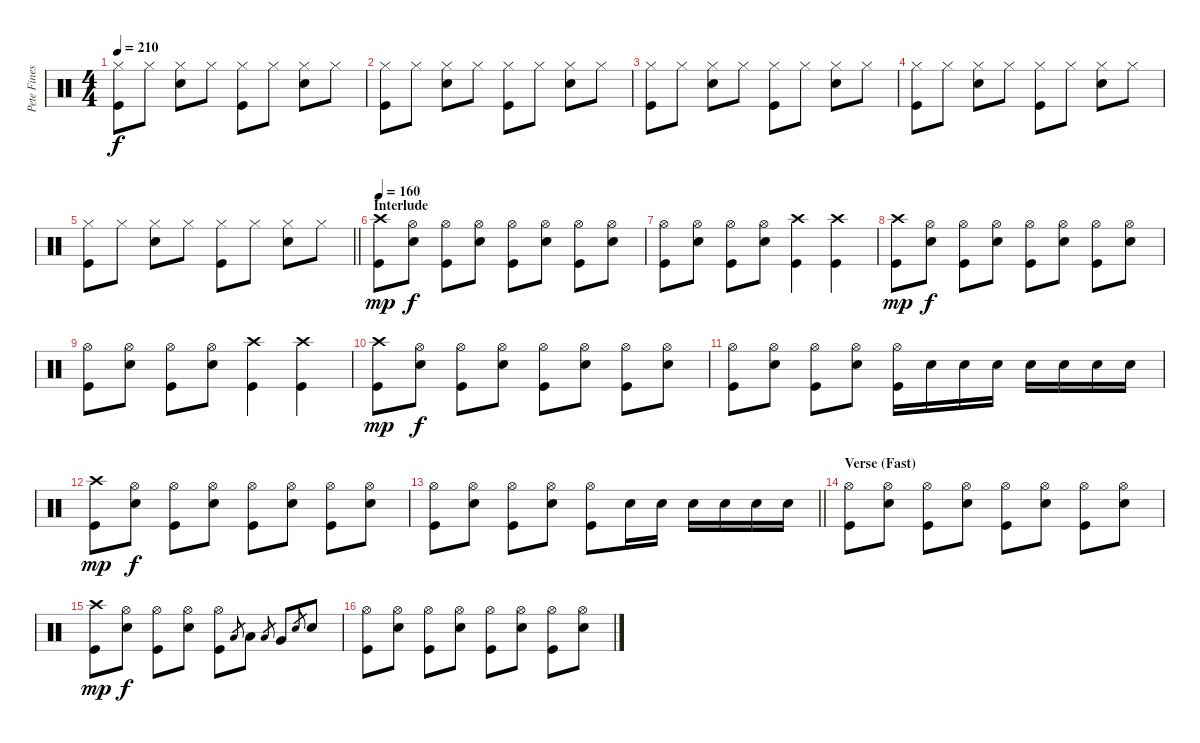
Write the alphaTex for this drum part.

\track ("Pete Finestone (Drums)" "Pete Fines") {instrument percussion}
\staff {score}
\articulation defaults
\ts (4 4)
\tempo 210
\clef neutral
\ks c
("Hi-Hat (closed)" "Kick (hit)").8{dy f} "Hi-Hat (closed)".8 ("Hi-Hat (closed)" "Snare (hit) 2").8 "Hi-Hat (closed)".8 ("Hi-Hat (closed)" "Kick (hit)").8 "Hi-Hat (closed)".8 ("Hi-Hat (closed)" "Snare (hit) 2").8 "Hi-Hat (closed)".8 |
("Hi-Hat (closed)" "Kick (hit)").8 "Hi-Hat (closed)".8 ("Hi-Hat (closed)" "Snare (hit) 2").8 "Hi-Hat (closed)".8 ("Hi-Hat (closed)" "Kick (hit)").8 "Hi-Hat (closed)".8 ("Hi-Hat (closed)" "Snare (hit) 2").8 "Hi-Hat (closed)".8 |
("Hi-Hat (closed)" "Kick (hit)").8 "Hi-Hat (closed)".8 ("Hi-Hat (closed)" "Snare (hit) 2").8 "Hi-Hat (closed)".8 ("Hi-Hat (closed)" "Kick (hit)").8 "Hi-Hat (closed)".8 ("Hi-Hat (closed)" "Snare (hit) 2").8 "Hi-Hat (closed)".8 |
("Hi-Hat (closed)" "Kick (hit)").8 "Hi-Hat (closed)".8 ("Hi-Hat (closed)" "Snare (hit) 2").8 "Hi-Hat (closed)".8 ("Hi-Hat (closed)" "Kick (hit)").8 "Hi-Hat (closed)".8 ("Hi-Hat (closed)" "Snare (hit) 2").8 "Hi-Hat (closed)".8 |
\barLineRight lightlight
("Hi-Hat (closed)" "Kick (hit)").8 "Hi-Hat (closed)".8 ("Hi-Hat (closed)" "Snare (hit) 2").8 "Hi-Hat (closed)".8 ("Hi-Hat (closed)" "Kick (hit)").8 "Hi-Hat (closed)".8 ("Hi-Hat (closed)" "Snare (hit) 2").8 "Hi-Hat (closed)".8 |
\section ("" "Interlude")
\tempo 160
("Crash high (hit)" "Kick (hit)").8{dy mp} ("Hi-Hat (open)" "Snare (hit) 2").8{dy f} ("Hi-Hat (open)" "Kick (hit)").8 ("Hi-Hat (open)" "Snare (hit) 2").8 ("Hi-Hat (open)" "Kick (hit)").8 ("Hi-Hat (open)" "Snare (hit) 2").8 ("Hi-Hat (open)" "Kick (hit)").8 ("Hi-Hat (open)" "Snare (hit) 2").8 |
("Hi-Hat (open)" "Kick (hit)").8 ("Hi-Hat (open)" "Snare (hit) 2").8 ("Hi-Hat (open)" "Kick (hit)").8 ("Hi-Hat (open)" "Snare (hit) 2").8 ("Crash high (hit)" "Kick (hit)").4 ("Crash high (hit)" "Kick (hit)").4 |
("Crash high (hit)" "Kick (hit)").8{dy mp} ("Hi-Hat (open)" "Snare (hit) 2").8{dy f} ("Hi-Hat (open)" "Kick (hit)").8 ("Hi-Hat (open)" "Snare (hit) 2").8 ("Hi-Hat (open)" "Kick (hit)").8 ("Hi-Hat (open)" "Snare (hit) 2").8 ("Hi-Hat (open)" "Kick (hit)").8 ("Hi-Hat (open)" "Snare (hit) 2").8 |
("Hi-Hat (open)" "Kick (hit)").8 ("Hi-Hat (open)" "Snare (hit) 2").8 ("Hi-Hat (open)" "Kick (hit)").8 ("Hi-Hat (open)" "Snare (hit) 2").8 ("Crash high (hit)" "Kick (hit)").4 ("Crash high (hit)" "Kick (hit)").4 |
("Crash high (hit)" "Kick (hit)").8{dy mp} ("Hi-Hat (open)" "Snare (hit) 2").8{dy f} ("Hi-Hat (open)" "Kick (hit)").8 ("Hi-Hat (open)" "Snare (hit) 2").8 ("Hi-Hat (open)" "Kick (hit)").8 ("Hi-Hat (open)" "Snare (hit) 2").8 ("Hi-Hat (open)" "Kick (hit)").8 ("Hi-Hat (open)" "Snare (hit) 2").8 |
("Hi-Hat (open)" "Kick (hit)").8 ("Hi-Hat (open)" "Snare (hit) 2").8 ("Hi-Hat (open)" "Kick (hit)").8 ("Hi-Hat (open)" "Snare (hit) 2").8 ("Hi-Hat (open)" "Kick (hit)").16 "Snare (hit) 2".16 "Snare (hit) 2".16 "Snare (hit) 2".16 "Snare (hit) 2".16 "Snare (hit) 2".16 "Snare (hit) 2".16 "Snare (hit) 2".16 |
("Crash high (hit)" "Kick (hit)").8{dy mp} ("Hi-Hat (open)" "Snare (hit) 2").8{dy f} ("Hi-Hat (open)" "Kick (hit)").8 ("Hi-Hat (open)" "Snare (hit) 2").8 ("Hi-Hat (open)" "Kick (hit)").8 ("Hi-Hat (open)" "Snare (hit) 2").8 ("Hi-Hat (open)" "Kick (hit)").8 ("Hi-Hat (open)" "Snare (hit) 2").8 |
\barLineRight lightlight
("Hi-Hat (open)" "Kick (hit)").8 ("Hi-Hat (open)" "Snare (hit) 2").8 ("Hi-Hat (open)" "Kick (hit)").8 ("Hi-Hat (open)" "Snare (hit) 2").8 ("Hi-Hat (open)" "Kick (hit)").8 "Snare (hit) 2".16 "Snare (hit) 2".16 "Snare (hit) 2".16 "Snare (hit) 2".16 "Snare (hit) 2".16 "Snare (hit) 2".16 |
\section ("" "Verse (Fast)")
("Hi-Hat (open)" "Kick (hit)").8 ("Hi-Hat (open)" "Snare (hit) 2").8 ("Hi-Hat (open)" "Kick (hit)").8 ("Hi-Hat (open)" "Snare (hit) 2").8 ("Hi-Hat (open)" "Kick (hit)").8 ("Hi-Hat (open)" "Snare (hit) 2").8 ("Hi-Hat (open)" "Kick (hit)").8 ("Hi-Hat (open)" "Snare (hit) 2").8 |
("Crash high (hit)" "Kick (hit)").8{dy mp} ("Hi-Hat (open)" "Snare (hit) 2").8{dy f} ("Hi-Hat (open)" "Kick (hit)").8 ("Hi-Hat (open)" "Snare (hit) 2").8 ("Hi-Hat (open)" "Kick (hit)").8 "Low Tom (hit)".8{gr} "Low Tom (hit)".8 "Low Tom (hit)".8{gr} "Very Low Tom (hit)".8 "Snare (hit) 2".8{gr} "Snare (hit) 2".8 |
("Hi-Hat (open)" "Kick (hit)").8 ("Hi-Hat (open)" "Snare (hit) 2").8 ("Hi-Hat (open)" "Kick (hit)").8 ("Hi-Hat (open)" "Snare (hit) 2").8 ("Hi-Hat (open)" "Kick (hit)").8 ("Hi-Hat (open)" "Snare (hit) 2").8 ("Hi-Hat (open)" "Kick (hit)").8 ("Hi-Hat (open)" "Snare (hit) 2").8
